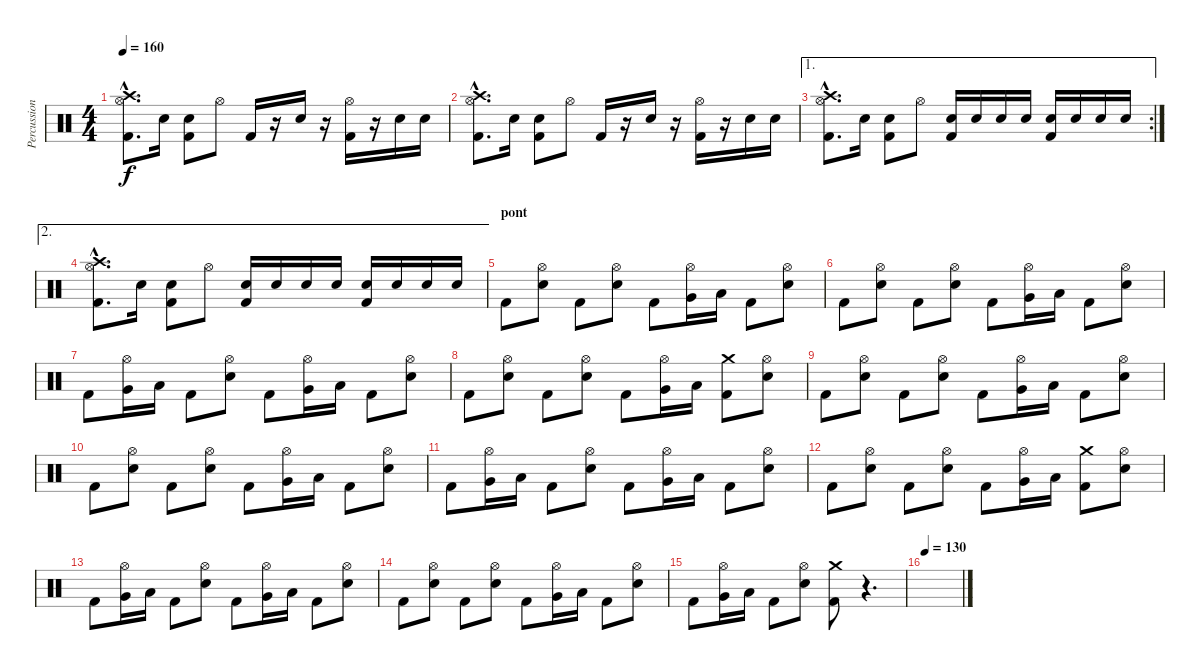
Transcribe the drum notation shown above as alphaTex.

\track ("Percussions" "Percussion") {instrument percussion}
\staff {score}
\articulation defaults
\ts (4 4)
\tempo 160
\clef neutral
\ks c
("Kick (hit) 2"{hac} "Hi-Hat (open)"{hac} "Crash high (hit)"{hac}).8{d dy f} "Electric Snare (hit)".16 ("Kick (hit) 2" "Electric Snare (hit)").8 "Hi-Hat (open)".8 "Kick (hit) 2".16 r.16 "Electric Snare (hit)".16 r.16 ("Kick (hit) 2" "Hi-Hat (open)").16 r.16 "Electric Snare (hit)".16 "Electric Snare (hit)".16 |
("Kick (hit) 2"{hac} "Hi-Hat (open)"{hac} "Crash high (hit)"{hac}).8{d} "Electric Snare (hit)".16 ("Kick (hit) 2" "Electric Snare (hit)").8 "Hi-Hat (open)".8 "Kick (hit) 2".16 r.16 "Electric Snare (hit)".16 r.16 ("Kick (hit) 2" "Hi-Hat (open)").16 r.16 "Electric Snare (hit)".16 "Electric Snare (hit)".16 |
\ae 1
\rc 2
("Kick (hit) 2"{hac} "Hi-Hat (open)"{hac} "Crash high (hit)"{hac}).8{d} "Electric Snare (hit)".16 ("Kick (hit) 2" "Electric Snare (hit)").8 "Hi-Hat (open)".8 ("Kick (hit) 2" "Electric Snare (hit)").16 "Electric Snare (hit)".16 "Electric Snare (hit)".16 "Electric Snare (hit)".16 ("Kick (hit) 2" "Electric Snare (hit)").16 "Electric Snare (hit)".16 "Electric Snare (hit)".16 "Electric Snare (hit)".16 |
\ae 2
("Kick (hit) 2"{hac} "Hi-Hat (open)"{hac} "Crash high (hit)"{hac}).8{d} "Electric Snare (hit)".16 ("Kick (hit) 2" "Electric Snare (hit)").8 "Hi-Hat (open)".8 ("Kick (hit) 2" "Electric Snare (hit)").16 "Electric Snare (hit)".16 "Electric Snare (hit)".16 "Electric Snare (hit)".16 ("Kick (hit) 2" "Electric Snare (hit)").16 "Electric Snare (hit)".16 "Electric Snare (hit)".16 "Electric Snare (hit)".16 |
\section ("" "pont")
"Kick (hit) 2".8 ("Electric Snare (hit)" "Hi-Hat (open)").8 "Kick (hit) 2".8 ("Electric Snare (hit)" "Hi-Hat (open)").8 "Kick (hit) 2".8 ("Very Low Tom (hit)" "Hi-Hat (open)").16 "Low Floor Tom (hit)".16 "Kick (hit) 2".8 ("Electric Snare (hit)" "Hi-Hat (open)").8 |
"Kick (hit) 2".8 ("Electric Snare (hit)" "Hi-Hat (open)").8 "Kick (hit) 2".8 ("Electric Snare (hit)" "Hi-Hat (open)").8 "Kick (hit) 2".8 ("Very Low Tom (hit)" "Hi-Hat (open)").16 "Low Floor Tom (hit)".16 "Kick (hit) 2".8 ("Electric Snare (hit)" "Hi-Hat (open)").8 |
"Kick (hit) 2".8 ("Very Low Tom (hit)" "Hi-Hat (open)").16 "Low Floor Tom (hit)".16 "Kick (hit) 2".8 ("Electric Snare (hit)" "Hi-Hat (open)").8 "Kick (hit) 2".8 ("Very Low Tom (hit)" "Hi-Hat (open)").16 "Low Floor Tom (hit)".16 "Kick (hit) 2".8 ("Electric Snare (hit)" "Hi-Hat (open)").8 |
"Kick (hit) 2".8 ("Electric Snare (hit)" "Hi-Hat (open)").8 "Kick (hit) 2".8 ("Electric Snare (hit)" "Hi-Hat (open)").8 "Kick (hit) 2".8 ("Very Low Tom (hit)" "Hi-Hat (open)").16 "Low Floor Tom (hit)".16 ("Kick (hit) 2" "Crash medium (hit)").8 ("Electric Snare (hit)" "Hi-Hat (open)").8 |
"Kick (hit) 2".8 ("Electric Snare (hit)" "Hi-Hat (open)").8 "Kick (hit) 2".8 ("Electric Snare (hit)" "Hi-Hat (open)").8 "Kick (hit) 2".8 ("Very Low Tom (hit)" "Hi-Hat (open)").16 "Low Floor Tom (hit)".16 "Kick (hit) 2".8 ("Electric Snare (hit)" "Hi-Hat (open)").8 |
"Kick (hit) 2".8 ("Electric Snare (hit)" "Hi-Hat (open)").8 "Kick (hit) 2".8 ("Electric Snare (hit)" "Hi-Hat (open)").8 "Kick (hit) 2".8 ("Very Low Tom (hit)" "Hi-Hat (open)").16 "Low Floor Tom (hit)".16 "Kick (hit) 2".8 ("Electric Snare (hit)" "Hi-Hat (open)").8 |
"Kick (hit) 2".8 ("Very Low Tom (hit)" "Hi-Hat (open)").16 "Low Floor Tom (hit)".16 "Kick (hit) 2".8 ("Electric Snare (hit)" "Hi-Hat (open)").8 "Kick (hit) 2".8 ("Very Low Tom (hit)" "Hi-Hat (open)").16 "Low Floor Tom (hit)".16 "Kick (hit) 2".8 ("Electric Snare (hit)" "Hi-Hat (open)").8 |
"Kick (hit) 2".8 ("Electric Snare (hit)" "Hi-Hat (open)").8 "Kick (hit) 2".8 ("Electric Snare (hit)" "Hi-Hat (open)").8 "Kick (hit) 2".8 ("Very Low Tom (hit)" "Hi-Hat (open)").16 "Low Floor Tom (hit)".16 ("Kick (hit) 2" "Crash medium (hit)").8 ("Electric Snare (hit)" "Hi-Hat (open)").8 |
"Kick (hit) 2".8 ("Very Low Tom (hit)" "Hi-Hat (open)").16 "Low Floor Tom (hit)".16 "Kick (hit) 2".8 ("Electric Snare (hit)" "Hi-Hat (open)").8 "Kick (hit) 2".8 ("Very Low Tom (hit)" "Hi-Hat (open)").16 "Low Floor Tom (hit)".16 "Kick (hit) 2".8 ("Electric Snare (hit)" "Hi-Hat (open)").8 |
"Kick (hit) 2".8 ("Electric Snare (hit)" "Hi-Hat (open)").8 "Kick (hit) 2".8 ("Electric Snare (hit)" "Hi-Hat (open)").8 "Kick (hit) 2".8 ("Very Low Tom (hit)" "Hi-Hat (open)").16 "Low Floor Tom (hit)".16 "Kick (hit) 2".8 ("Electric Snare (hit)" "Hi-Hat (open)").8 |
"Kick (hit) 2".8 ("Very Low Tom (hit)" "Hi-Hat (open)").16 "Low Floor Tom (hit)".16 "Kick (hit) 2".8 ("Electric Snare (hit)" "Hi-Hat (open)").8 ("Kick (hit) 2" "Crash medium (hit)").8 r.4{d} |
\tempo 130
